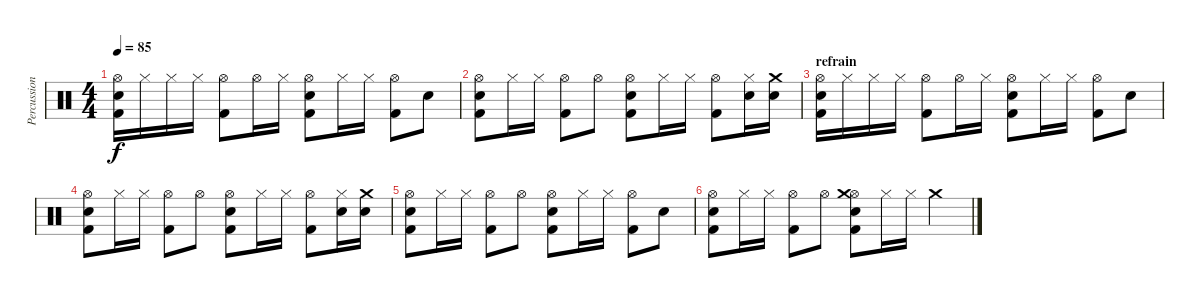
\track ("Percussions" "Percussion") {instrument percussion}
\staff {score}
\articulation defaults
\ts (4 4)
\tempo 85
\clef neutral
\ks c
("Hi-Hat (open)" "Kick (hit) 2" "Electric Snare (hit)").16{dy f} "Hi-Hat (closed)".16 "Hi-Hat (closed)".16 "Hi-Hat (closed)".16 ("Hi-Hat (open)" "Kick (hit) 2").8 "Hi-Hat (open)".16 "Hi-Hat (closed)".16 ("Hi-Hat (open)" "Electric Snare (hit)" "Kick (hit) 2").8 "Hi-Hat (closed)".16 "Hi-Hat (closed)".16 ("Hi-Hat (open)" "Kick (hit) 2").8 "Electric Snare (hit)".8 |
("Hi-Hat (open)" "Kick (hit) 2" "Electric Snare (hit)").8 "Hi-Hat (closed)".16 "Hi-Hat (closed)".16 ("Hi-Hat (open)" "Kick (hit) 2").8 "Hi-Hat (open)".8 ("Hi-Hat (open)" "Electric Snare (hit)" "Kick (hit) 2").8 "Hi-Hat (closed)".16 "Hi-Hat (closed)".16 ("Hi-Hat (open)" "Kick (hit) 2").8 ("Hi-Hat (closed)" "Electric Snare (hit)").16 ("Crash medium (hit)" "Electric Snare (hit)").16 |
\section ("" "refrain")
("Hi-Hat (open)" "Kick (hit) 2" "Electric Snare (hit)").16 "Hi-Hat (closed)".16 "Hi-Hat (closed)".16 "Hi-Hat (closed)".16 ("Hi-Hat (open)" "Kick (hit) 2").8 "Hi-Hat (open)".16 "Hi-Hat (closed)".16 ("Hi-Hat (open)" "Electric Snare (hit)" "Kick (hit) 2").8 "Hi-Hat (closed)".16 "Hi-Hat (closed)".16 ("Hi-Hat (open)" "Kick (hit) 2").8 "Electric Snare (hit)".8 |
("Hi-Hat (open)" "Kick (hit) 2" "Electric Snare (hit)").8 "Hi-Hat (closed)".16 "Hi-Hat (closed)".16 ("Hi-Hat (open)" "Kick (hit) 2").8 "Hi-Hat (open)".8 ("Hi-Hat (open)" "Electric Snare (hit)" "Kick (hit) 2").8 "Hi-Hat (closed)".16 "Hi-Hat (closed)".16 ("Hi-Hat (open)" "Kick (hit) 2").8 ("Hi-Hat (closed)" "Electric Snare (hit)").16 ("Crash medium (hit)" "Electric Snare (hit)").16 |
("Hi-Hat (open)" "Kick (hit) 2" "Electric Snare (hit)").8 "Hi-Hat (closed)".16 "Hi-Hat (closed)".16 ("Hi-Hat (open)" "Kick (hit) 2").8 "Hi-Hat (open)".8 ("Hi-Hat (open)" "Electric Snare (hit)" "Kick (hit) 2").8 "Hi-Hat (closed)".16 "Hi-Hat (closed)".16 ("Hi-Hat (open)" "Kick (hit) 2").8 "Electric Snare (hit)".8 |
("Hi-Hat (open)" "Kick (hit) 2" "Electric Snare (hit)").8 "Hi-Hat (closed)".16 "Hi-Hat (closed)".16 ("Hi-Hat (open)" "Kick (hit) 2").8 "Hi-Hat (open)".8 ("Hi-Hat (open)" "Electric Snare (hit)" "Kick (hit) 2" "Crash medium (hit)").8 "Hi-Hat (closed)".16 "Hi-Hat (closed)".16 "Crash medium (hit)".4
